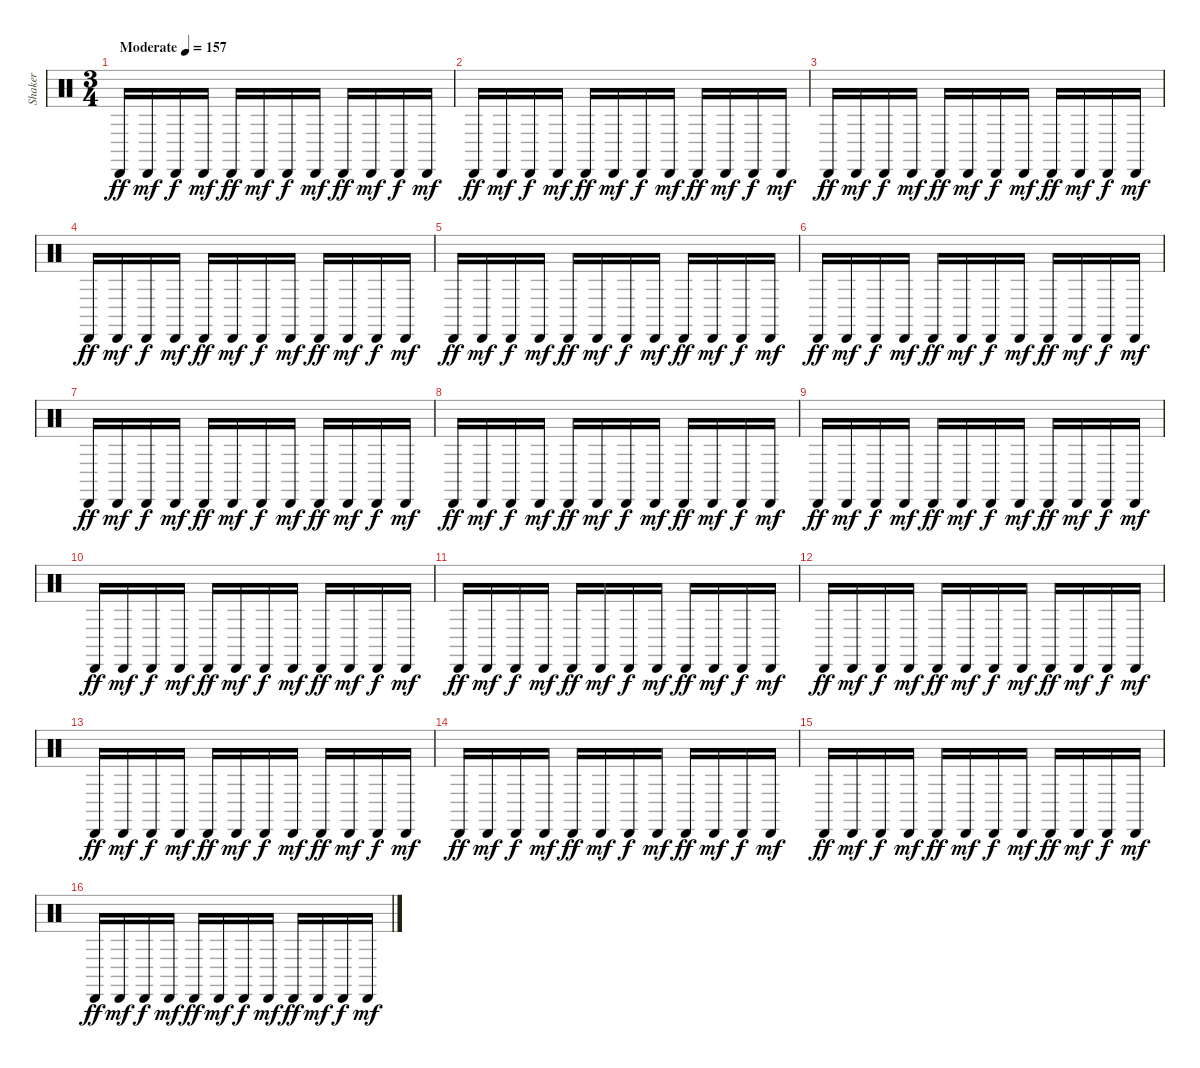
\track ("Shaker" "Shaker") {instrument percussion}
\staff {score}
\articulation defaults
\ts (3 4)
\tempo (157 "Moderate")
\clef neutral
\ks c "Cabasa (hit)".16{dy ff} "Cabasa (hit)".16{dy mf} "Cabasa (hit)".16{dy f} "Cabasa (hit)".16{dy mf} "Cabasa (hit)".16{dy ff} "Cabasa (hit)".16{dy mf} "Cabasa (hit)".16{dy f} "Cabasa (hit)".16{dy mf} "Cabasa (hit)".16{dy ff} "Cabasa (hit)".16{dy mf} "Cabasa (hit)".16{dy f} "Cabasa (hit)".16{dy mf}
|
"Cabasa (hit)".16{dy ff} "Cabasa (hit)".16{dy mf} "Cabasa (hit)".16{dy f} "Cabasa (hit)".16{dy mf} "Cabasa (hit)".16{dy ff} "Cabasa (hit)".16{dy mf} "Cabasa (hit)".16{dy f} "Cabasa (hit)".16{dy mf} "Cabasa (hit)".16{dy ff} "Cabasa (hit)".16{dy mf} "Cabasa (hit)".16{dy f} "Cabasa (hit)".16{dy mf} |
"Cabasa (hit)".16{dy ff} "Cabasa (hit)".16{dy mf} "Cabasa (hit)".16{dy f} "Cabasa (hit)".16{dy mf} "Cabasa (hit)".16{dy ff} "Cabasa (hit)".16{dy mf} "Cabasa (hit)".16{dy f} "Cabasa (hit)".16{dy mf} "Cabasa (hit)".16{dy ff} "Cabasa (hit)".16{dy mf} "Cabasa (hit)".16{dy f} "Cabasa (hit)".16{dy mf} |
"Cabasa (hit)".16{dy ff} "Cabasa (hit)".16{dy mf} "Cabasa (hit)".16{dy f} "Cabasa (hit)".16{dy mf} "Cabasa (hit)".16{dy ff} "Cabasa (hit)".16{dy mf} "Cabasa (hit)".16{dy f} "Cabasa (hit)".16{dy mf} "Cabasa (hit)".16{dy ff} "Cabasa (hit)".16{dy mf} "Cabasa (hit)".16{dy f} "Cabasa (hit)".16{dy mf} |
"Cabasa (hit)".16{dy ff} "Cabasa (hit)".16{dy mf} "Cabasa (hit)".16{dy f} "Cabasa (hit)".16{dy mf} "Cabasa (hit)".16{dy ff} "Cabasa (hit)".16{dy mf} "Cabasa (hit)".16{dy f} "Cabasa (hit)".16{dy mf} "Cabasa (hit)".16{dy ff} "Cabasa (hit)".16{dy mf} "Cabasa (hit)".16{dy f} "Cabasa (hit)".16{dy mf} |
"Cabasa (hit)".16{dy ff} "Cabasa (hit)".16{dy mf} "Cabasa (hit)".16{dy f} "Cabasa (hit)".16{dy mf} "Cabasa (hit)".16{dy ff} "Cabasa (hit)".16{dy mf} "Cabasa (hit)".16{dy f} "Cabasa (hit)".16{dy mf} "Cabasa (hit)".16{dy ff} "Cabasa (hit)".16{dy mf} "Cabasa (hit)".16{dy f} "Cabasa (hit)".16{dy mf} |
"Cabasa (hit)".16{dy ff} "Cabasa (hit)".16{dy mf} "Cabasa (hit)".16{dy f} "Cabasa (hit)".16{dy mf} "Cabasa (hit)".16{dy ff} "Cabasa (hit)".16{dy mf} "Cabasa (hit)".16{dy f} "Cabasa (hit)".16{dy mf} "Cabasa (hit)".16{dy ff} "Cabasa (hit)".16{dy mf} "Cabasa (hit)".16{dy f} "Cabasa (hit)".16{dy mf} |
"Cabasa (hit)".16{dy ff} "Cabasa (hit)".16{dy mf} "Cabasa (hit)".16{dy f} "Cabasa (hit)".16{dy mf} "Cabasa (hit)".16{dy ff} "Cabasa (hit)".16{dy mf} "Cabasa (hit)".16{dy f} "Cabasa (hit)".16{dy mf} "Cabasa (hit)".16{dy ff} "Cabasa (hit)".16{dy mf} "Cabasa (hit)".16{dy f} "Cabasa (hit)".16{dy mf} |
"Cabasa (hit)".16{dy ff} "Cabasa (hit)".16{dy mf} "Cabasa (hit)".16{dy f} "Cabasa (hit)".16{dy mf} "Cabasa (hit)".16{dy ff} "Cabasa (hit)".16{dy mf} "Cabasa (hit)".16{dy f} "Cabasa (hit)".16{dy mf} "Cabasa (hit)".16{dy ff} "Cabasa (hit)".16{dy mf} "Cabasa (hit)".16{dy f} "Cabasa (hit)".16{dy mf} |
"Cabasa (hit)".16{dy ff} "Cabasa (hit)".16{dy mf} "Cabasa (hit)".16{dy f} "Cabasa (hit)".16{dy mf} "Cabasa (hit)".16{dy ff} "Cabasa (hit)".16{dy mf} "Cabasa (hit)".16{dy f} "Cabasa (hit)".16{dy mf} "Cabasa (hit)".16{dy ff} "Cabasa (hit)".16{dy mf} "Cabasa (hit)".16{dy f} "Cabasa (hit)".16{dy mf} |
"Cabasa (hit)".16{dy ff} "Cabasa (hit)".16{dy mf} "Cabasa (hit)".16{dy f} "Cabasa (hit)".16{dy mf} "Cabasa (hit)".16{dy ff} "Cabasa (hit)".16{dy mf} "Cabasa (hit)".16{dy f} "Cabasa (hit)".16{dy mf} "Cabasa (hit)".16{dy ff} "Cabasa (hit)".16{dy mf} "Cabasa (hit)".16{dy f} "Cabasa (hit)".16{dy mf} |
"Cabasa (hit)".16{dy ff} "Cabasa (hit)".16{dy mf} "Cabasa (hit)".16{dy f} "Cabasa (hit)".16{dy mf} "Cabasa (hit)".16{dy ff} "Cabasa (hit)".16{dy mf} "Cabasa (hit)".16{dy f} "Cabasa (hit)".16{dy mf} "Cabasa (hit)".16{dy ff} "Cabasa (hit)".16{dy mf} "Cabasa (hit)".16{dy f} "Cabasa (hit)".16{dy mf} |
"Cabasa (hit)".16{dy ff} "Cabasa (hit)".16{dy mf} "Cabasa (hit)".16{dy f} "Cabasa (hit)".16{dy mf} "Cabasa (hit)".16{dy ff} "Cabasa (hit)".16{dy mf} "Cabasa (hit)".16{dy f} "Cabasa (hit)".16{dy mf} "Cabasa (hit)".16{dy ff} "Cabasa (hit)".16{dy mf} "Cabasa (hit)".16{dy f} "Cabasa (hit)".16{dy mf} |
"Cabasa (hit)".16{dy ff} "Cabasa (hit)".16{dy mf} "Cabasa (hit)".16{dy f} "Cabasa (hit)".16{dy mf} "Cabasa (hit)".16{dy ff} "Cabasa (hit)".16{dy mf} "Cabasa (hit)".16{dy f} "Cabasa (hit)".16{dy mf} "Cabasa (hit)".16{dy ff} "Cabasa (hit)".16{dy mf} "Cabasa (hit)".16{dy f} "Cabasa (hit)".16{dy mf} |
"Cabasa (hit)".16{dy ff} "Cabasa (hit)".16{dy mf} "Cabasa (hit)".16{dy f} "Cabasa (hit)".16{dy mf} "Cabasa (hit)".16{dy ff} "Cabasa (hit)".16{dy mf} "Cabasa (hit)".16{dy f} "Cabasa (hit)".16{dy mf} "Cabasa (hit)".16{dy ff} "Cabasa (hit)".16{dy mf} "Cabasa (hit)".16{dy f} "Cabasa (hit)".16{dy mf} |
"Cabasa (hit)".16{dy ff} "Cabasa (hit)".16{dy mf} "Cabasa (hit)".16{dy f} "Cabasa (hit)".16{dy mf} "Cabasa (hit)".16{dy ff} "Cabasa (hit)".16{dy mf} "Cabasa (hit)".16{dy f} "Cabasa (hit)".16{dy mf} "Cabasa (hit)".16{dy ff} "Cabasa (hit)".16{dy mf} "Cabasa (hit)".16{dy f} "Cabasa (hit)".16{dy mf}
